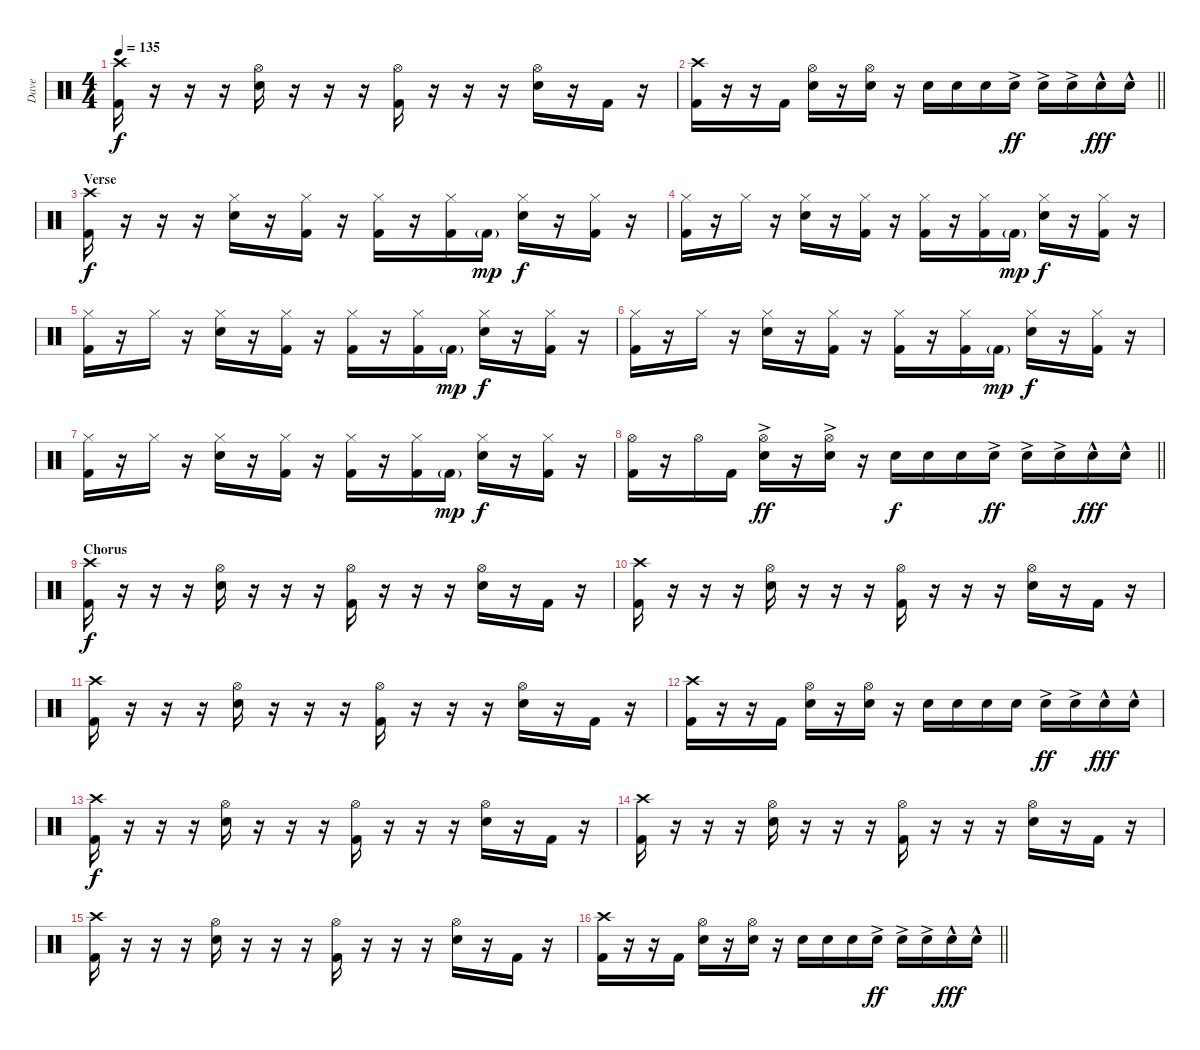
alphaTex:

\track ("Dave" "Dave") {instrument percussion}
\staff {score}
\articulation defaults
\ts (4 4)
\tempo 135
\clef neutral
\ks c
("Crash high (hit)" "Kick (hit) 2").16{dy f} r.16 r.16 r.16 ("Hi-Hat (open)" "Electric Snare (hit)").16 r.16 r.16 r.16 ("Hi-Hat (open)" "Kick (hit) 2").16 r.16 r.16 r.16 ("Hi-Hat (open)" "Electric Snare (hit)").16 r.16 "Kick (hit) 2".16 r.16 |
\barLineRight lightlight
("Crash high (hit)" "Kick (hit) 2").16 r.16 r.16 "Kick (hit) 2".16 ("Hi-Hat (open)" "Electric Snare (hit)").16 r.16 ("Hi-Hat (open)" "Electric Snare (hit)").16 r.16 "Electric Snare (hit)".16 "Electric Snare (hit)".16 "Electric Snare (hit)".16 "Electric Snare (hit)"{ac}.16{dy ff} "Electric Snare (hit)"{ac}.16 "Electric Snare (hit)"{ac}.16 "Electric Snare (hit)"{hac}.16{dy fff} "Electric Snare (hit)"{hac}.16 |
\section ("" "Verse")
("Crash high (hit)" "Kick (hit) 2").16{dy f} r.16 r.16 r.16 ("Hi-Hat (closed)" "Electric Snare (hit)").16 r.16 ("Hi-Hat (closed)" "Kick (hit) 2").16 r.16 ("Hi-Hat (closed)" "Kick (hit) 2").16 r.16 ("Hi-Hat (closed)" "Kick (hit) 2").16 "Kick (hit) 2"{g}.16{dy mp} ("Hi-Hat (closed)" "Electric Snare (hit)").16{dy f} r.16 ("Hi-Hat (closed)" "Kick (hit) 2").16 r.16 |
("Hi-Hat (closed)" "Kick (hit) 2").16 r.16 "Hi-Hat (closed)".16 r.16 ("Hi-Hat (closed)" "Electric Snare (hit)").16 r.16 ("Hi-Hat (closed)" "Kick (hit) 2").16 r.16 ("Hi-Hat (closed)" "Kick (hit) 2").16 r.16 ("Hi-Hat (closed)" "Kick (hit) 2").16 "Kick (hit) 2"{g}.16{dy mp} ("Hi-Hat (closed)" "Electric Snare (hit)").16{dy f} r.16 ("Hi-Hat (closed)" "Kick (hit) 2").16 r.16 |
("Hi-Hat (closed)" "Kick (hit) 2").16 r.16 "Hi-Hat (closed)".16 r.16 ("Hi-Hat (closed)" "Electric Snare (hit)").16 r.16 ("Hi-Hat (closed)" "Kick (hit) 2").16 r.16 ("Hi-Hat (closed)" "Kick (hit) 2").16 r.16 ("Hi-Hat (closed)" "Kick (hit) 2").16 "Kick (hit) 2"{g}.16{dy mp} ("Hi-Hat (closed)" "Electric Snare (hit)").16{dy f} r.16 ("Hi-Hat (closed)" "Kick (hit) 2").16 r.16 |
("Hi-Hat (closed)" "Kick (hit) 2").16 r.16 "Hi-Hat (closed)".16 r.16 ("Hi-Hat (closed)" "Electric Snare (hit)").16 r.16 ("Hi-Hat (closed)" "Kick (hit) 2").16 r.16 ("Hi-Hat (closed)" "Kick (hit) 2").16 r.16 ("Hi-Hat (closed)" "Kick (hit) 2").16 "Kick (hit) 2"{g}.16{dy mp} ("Hi-Hat (closed)" "Electric Snare (hit)").16{dy f} r.16 ("Hi-Hat (closed)" "Kick (hit) 2").16 r.16 |
("Hi-Hat (closed)" "Kick (hit) 2").16 r.16 "Hi-Hat (closed)".16 r.16 ("Hi-Hat (closed)" "Electric Snare (hit)").16 r.16 ("Hi-Hat (closed)" "Kick (hit) 2").16 r.16 ("Hi-Hat (closed)" "Kick (hit) 2").16 r.16 ("Hi-Hat (closed)" "Kick (hit) 2").16 "Kick (hit) 2"{g}.16{dy mp} ("Hi-Hat (closed)" "Electric Snare (hit)").16{dy f} r.16 ("Hi-Hat (closed)" "Kick (hit) 2").16 r.16 |
\barLineRight lightlight
("Hi-Hat (open)" "Kick (hit) 2").16 r.16 "Hi-Hat (open)".16 "Kick (hit) 2".16 ("Hi-Hat (open)"{ac} "Electric Snare (hit)").16{dy ff} r.16 ("Hi-Hat (open)"{ac} "Electric Snare (hit)").16 r.16 "Electric Snare (hit)".16{dy f} "Electric Snare (hit)".16 "Electric Snare (hit)".16 "Electric Snare (hit)"{ac}.16{dy ff} "Electric Snare (hit)"{ac}.16 "Electric Snare (hit)"{ac}.16 "Electric Snare (hit)"{hac}.16{dy fff} "Electric Snare (hit)"{hac}.16 |
\section ("" "Chorus")
("Crash high (hit)" "Kick (hit) 2").16{dy f} r.16 r.16 r.16 ("Hi-Hat (open)" "Electric Snare (hit)").16 r.16 r.16 r.16 ("Hi-Hat (open)" "Kick (hit) 2").16 r.16 r.16 r.16 ("Hi-Hat (open)" "Electric Snare (hit)").16 r.16 "Kick (hit) 2".16 r.16 |
("Crash high (hit)" "Kick (hit) 2").16 r.16 r.16 r.16 ("Hi-Hat (open)" "Electric Snare (hit)").16 r.16 r.16 r.16 ("Hi-Hat (open)" "Kick (hit) 2").16 r.16 r.16 r.16 ("Hi-Hat (open)" "Electric Snare (hit)").16 r.16 "Kick (hit) 2".16 r.16 |
("Crash high (hit)" "Kick (hit) 2").16 r.16 r.16 r.16 ("Hi-Hat (open)" "Electric Snare (hit)").16 r.16 r.16 r.16 ("Hi-Hat (open)" "Kick (hit) 2").16 r.16 r.16 r.16 ("Hi-Hat (open)" "Electric Snare (hit)").16 r.16 "Kick (hit) 2".16 r.16 |
("Crash high (hit)" "Kick (hit) 2").16 r.16 r.16 "Kick (hit) 2".16 ("Hi-Hat (open)" "Electric Snare (hit)").16 r.16 ("Hi-Hat (open)" "Electric Snare (hit)").16 r.16 "Electric Snare (hit)".16 "Electric Snare (hit)".16 "Electric Snare (hit)".16 "Electric Snare (hit)".16 "Electric Snare (hit)"{ac}.16{dy ff} "Electric Snare (hit)"{ac}.16 "Electric Snare (hit)"{hac}.16{dy fff} "Electric Snare (hit)"{hac}.16 |
("Crash high (hit)" "Kick (hit) 2").16{dy f} r.16 r.16 r.16 ("Hi-Hat (open)" "Electric Snare (hit)").16 r.16 r.16 r.16 ("Hi-Hat (open)" "Kick (hit) 2").16 r.16 r.16 r.16 ("Hi-Hat (open)" "Electric Snare (hit)").16 r.16 "Kick (hit) 2".16 r.16 |
("Crash high (hit)" "Kick (hit) 2").16 r.16 r.16 r.16 ("Hi-Hat (open)" "Electric Snare (hit)").16 r.16 r.16 r.16 ("Hi-Hat (open)" "Kick (hit) 2").16 r.16 r.16 r.16 ("Hi-Hat (open)" "Electric Snare (hit)").16 r.16 "Kick (hit) 2".16 r.16 |
("Crash high (hit)" "Kick (hit) 2").16 r.16 r.16 r.16 ("Hi-Hat (open)" "Electric Snare (hit)").16 r.16 r.16 r.16 ("Hi-Hat (open)" "Kick (hit) 2").16 r.16 r.16 r.16 ("Hi-Hat (open)" "Electric Snare (hit)").16 r.16 "Kick (hit) 2".16 r.16 |
\barLineRight lightlight
("Crash high (hit)" "Kick (hit) 2").16 r.16 r.16 "Kick (hit) 2".16 ("Hi-Hat (open)" "Electric Snare (hit)").16 r.16 ("Hi-Hat (open)" "Electric Snare (hit)").16 r.16 "Electric Snare (hit)".16 "Electric Snare (hit)".16 "Electric Snare (hit)".16 "Electric Snare (hit)"{ac}.16{dy ff} "Electric Snare (hit)"{ac}.16 "Electric Snare (hit)"{ac}.16 "Electric Snare (hit)"{hac}.16{dy fff} "Electric Snare (hit)"{hac}.16
